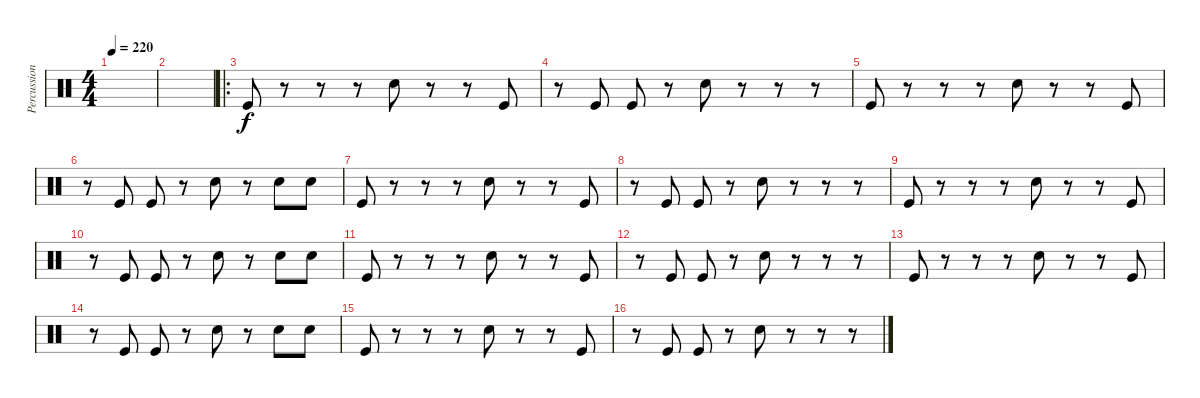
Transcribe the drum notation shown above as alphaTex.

\track ("Percussion" "Percussion") {instrument percussion}
\staff {score}
\articulation defaults
\ts (4 4)
\tempo 220
\clef neutral
\ks c
|
|
\ro "Kick (hit)".8
r.8 r.8 r.8 "Snare (hit) 2".8 r.8 r.8 "Kick (hit)".8 |
r.8 "Kick (hit)".8 "Kick (hit)".8 r.8 "Snare (hit) 2".8 r.8 r.8 r.8 |
"Kick (hit)".8 r.8 r.8 r.8 "Snare (hit) 2".8 r.8 r.8 "Kick (hit)".8 |
r.8 "Kick (hit)".8 "Kick (hit)".8 r.8 "Snare (hit) 2".8 r.8 "Snare (hit) 2".8 "Snare (hit) 2".8 |
"Kick (hit)".8 r.8 r.8 r.8 "Snare (hit) 2".8 r.8 r.8 "Kick (hit)".8 |
r.8 "Kick (hit)".8 "Kick (hit)".8 r.8 "Snare (hit) 2".8 r.8 r.8 r.8 |
"Kick (hit)".8 r.8 r.8 r.8 "Snare (hit) 2".8 r.8 r.8 "Kick (hit)".8 |
r.8 "Kick (hit)".8 "Kick (hit)".8 r.8 "Snare (hit) 2".8 r.8 "Snare (hit) 2".8 "Snare (hit) 2".8 |
"Kick (hit)".8 r.8 r.8 r.8 "Snare (hit) 2".8 r.8 r.8 "Kick (hit)".8 |
r.8 "Kick (hit)".8 "Kick (hit)".8 r.8 "Snare (hit) 2".8 r.8 r.8 r.8 |
"Kick (hit)".8 r.8 r.8 r.8 "Snare (hit) 2".8 r.8 r.8 "Kick (hit)".8 |
r.8 "Kick (hit)".8 "Kick (hit)".8 r.8 "Snare (hit) 2".8 r.8 "Snare (hit) 2".8 "Snare (hit) 2".8 |
"Kick (hit)".8 r.8 r.8 r.8 "Snare (hit) 2".8 r.8 r.8 "Kick (hit)".8 |
r.8 "Kick (hit)".8 "Kick (hit)".8 r.8 "Snare (hit) 2".8 r.8 r.8 r.8
